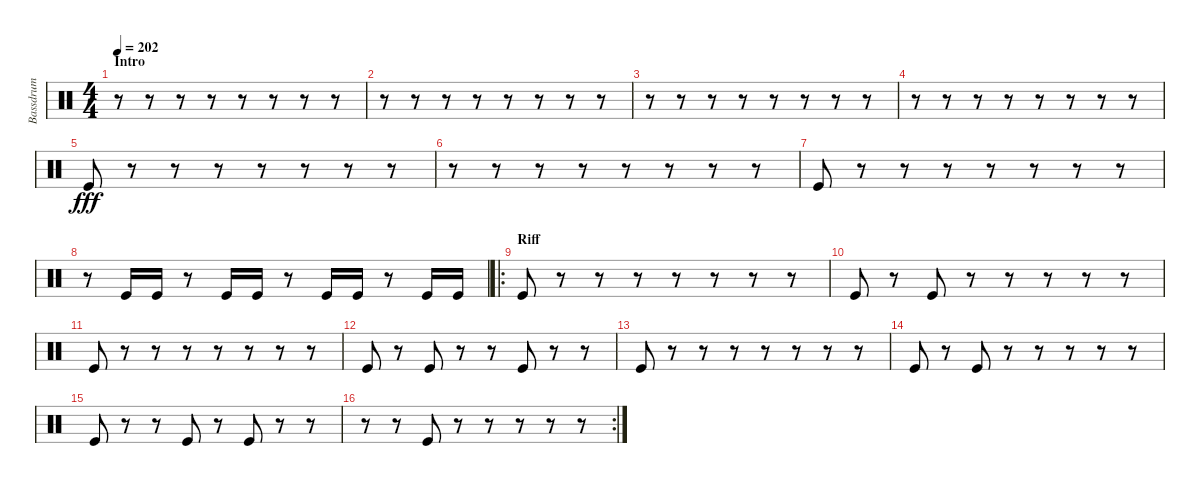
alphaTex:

\track ("Bassdrum" "Bassdrum") {instrument percussion}
\staff {score}
\articulation defaults
\ts (4 4)
\section ("" "Intro")
\tempo 202
\clef neutral
\ks c
r.8{dy fff} r.8 r.8 r.8 r.8 r.8 r.8 r.8 |
r.8 r.8 r.8 r.8 r.8 r.8 r.8 r.8 |
r.8 r.8 r.8 r.8 r.8 r.8 r.8 r.8 |
r.8 r.8 r.8 r.8 r.8 r.8 r.8 r.8 |
"Kick (hit)".8 r.8 r.8 r.8 r.8 r.8 r.8 r.8 |
r.8 r.8 r.8 r.8 r.8 r.8 r.8 r.8 |
"Kick (hit)".8 r.8 r.8 r.8 r.8 r.8 r.8 r.8 |
r.8 "Kick (hit)".16 "Kick (hit)".16 r.8 "Kick (hit)".16 "Kick (hit)".16 r.8 "Kick (hit)".16 "Kick (hit)".16 r.8 "Kick (hit)".16 "Kick (hit)".16 |
\ro
\section ("" "Riff")
"Kick (hit)".8 r.8 r.8 r.8 r.8 r.8 r.8 r.8 |
"Kick (hit)".8 r.8 "Kick (hit)".8 r.8 r.8 r.8 r.8 r.8 |
"Kick (hit)".8 r.8 r.8 r.8 r.8 r.8 r.8 r.8 |
"Kick (hit)".8 r.8 "Kick (hit)".8 r.8 r.8 "Kick (hit)".8 r.8 r.8 |
"Kick (hit)".8 r.8 r.8 r.8 r.8 r.8 r.8 r.8 |
"Kick (hit)".8 r.8 "Kick (hit)".8 r.8 r.8 r.8 r.8 r.8 |
"Kick (hit)".8 r.8 r.8 "Kick (hit)".8 r.8 "Kick (hit)".8 r.8 r.8 |
\rc 2
r.8 r.8 "Kick (hit)".8 r.8 r.8 r.8 r.8 r.8
